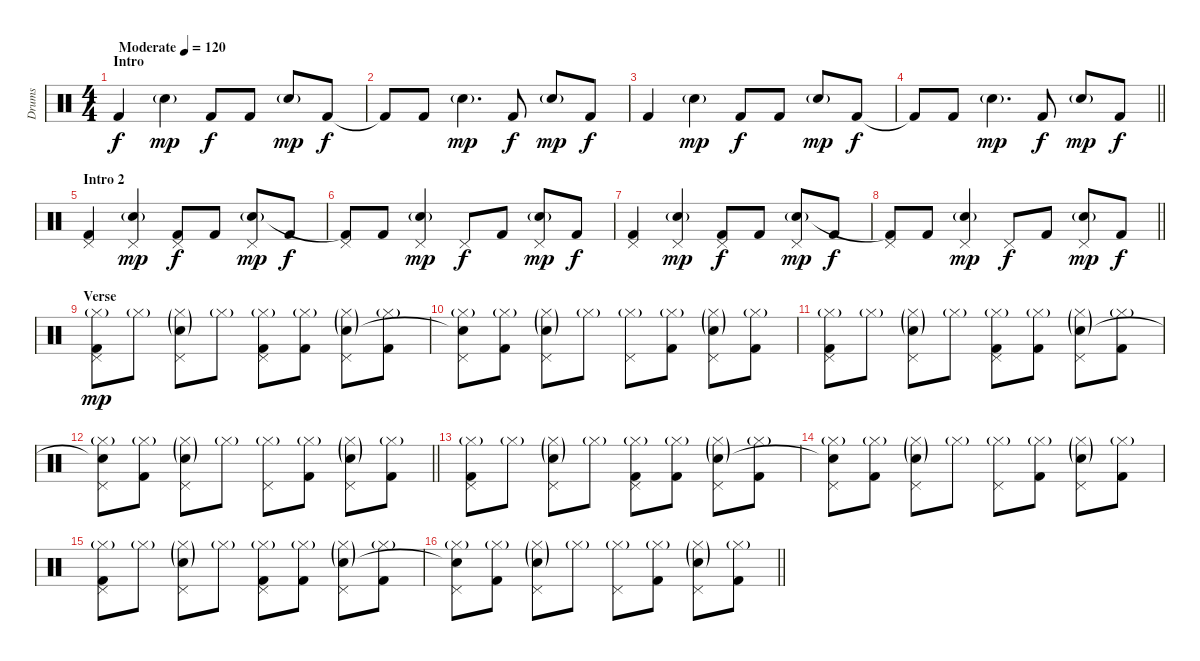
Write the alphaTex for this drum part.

\track ("Drums" "Drums") {instrument percussion}
\staff {score}
\articulation defaults
\ts (4 4)
\section ("" "Intro")
\tempo (120 "Moderate")
\clef neutral
\ks c "Kick (hit) 2".4{dy f} "Snare (hit) 2"{g}.4{dy mp} "Kick (hit) 2".8{dy f} "Kick (hit) 2".8 "Snare (hit) 2"{g}.8{dy mp} "Kick (hit) 2".8{dy f}
|
"Kick (hit) 2"{t}.8 "Kick (hit) 2".8 "Snare (hit) 2"{g}.4{d dy mp} "Kick (hit) 2".8{dy f} "Snare (hit) 2"{g}.8{dy mp} "Kick (hit) 2".8{dy f} |
"Kick (hit) 2".4 "Snare (hit) 2"{g}.4{dy mp} "Kick (hit) 2".8{dy f} "Kick (hit) 2".8 "Snare (hit) 2"{g}.8{dy mp} "Kick (hit) 2".8{dy f} |
\barLineRight lightlight "Kick (hit) 2"{t}.8 "Kick (hit) 2".8 "Snare (hit) 2"{g}.4{d dy mp} "Kick (hit) 2".8{dy f} "Snare (hit) 2"{g}.8{dy mp} "Kick (hit) 2".8{dy f}
|
\section ("" "Intro 2")
("Pedal Hi-Hat (hit)" "Kick (hit) 2").4 ("Pedal Hi-Hat (hit)" "Snare (hit) 2"{g}).4{dy mp} ("Pedal Hi-Hat (hit)" "Kick (hit) 2").8{dy f} "Kick (hit) 2".8 ("Pedal Hi-Hat (hit)" "Snare (hit) 2"{g}).8{dy mp} "Kick (hit) 2".8{dy f} |
("Pedal Hi-Hat (hit)" "Kick (hit) 2"{t}).8 "Kick (hit) 2".8 ("Pedal Hi-Hat (hit)" "Snare (hit) 2"{g}).4{dy mp} "Pedal Hi-Hat (hit)".8{dy f} "Kick (hit) 2".8 ("Pedal Hi-Hat (hit)" "Snare (hit) 2"{g}).8{dy mp} "Kick (hit) 2".8{dy f} |
("Pedal Hi-Hat (hit)" "Kick (hit) 2").4 ("Pedal Hi-Hat (hit)" "Snare (hit) 2"{g}).4{dy mp} ("Pedal Hi-Hat (hit)" "Kick (hit) 2").8{dy f} "Kick (hit) 2".8 ("Pedal Hi-Hat (hit)" "Snare (hit) 2"{g}).8{dy mp} "Kick (hit) 2".8{dy f} |
\barLineRight lightlight
("Pedal Hi-Hat (hit)" "Kick (hit) 2"{t}).8 "Kick (hit) 2".8 ("Pedal Hi-Hat (hit)" "Snare (hit) 2"{g}).4{dy mp} "Pedal Hi-Hat (hit)".8{dy f} "Kick (hit) 2".8 ("Pedal Hi-Hat (hit)" "Snare (hit) 2"{g}).8{dy mp} "Kick (hit) 2".8{dy f} |
\section ("" "Verse")
("Pedal Hi-Hat (hit)" "Hi-Hat (closed)"{g} "Kick (hit) 2").8{dy mp} "Hi-Hat (closed)"{g}.8 ("Pedal Hi-Hat (hit)" "Hi-Hat (closed)"{g} "Snare (hit) 2"{g}).8 "Hi-Hat (closed)"{g}.8 ("Pedal Hi-Hat (hit)" "Hi-Hat (closed)"{g} "Kick (hit) 2").8 ("Hi-Hat (closed)"{g} "Kick (hit) 2").8 ("Pedal Hi-Hat (hit)" "Hi-Hat (closed)"{g} "Snare (hit) 2"{g}).8 ("Hi-Hat (closed)"{g} "Kick (hit) 2").8 |
("Pedal Hi-Hat (hit)" "Hi-Hat (closed)"{g} "Snare (hit)"{t}).8 ("Hi-Hat (closed)"{g} "Kick (hit) 2").8 ("Pedal Hi-Hat (hit)" "Hi-Hat (closed)"{g} "Snare (hit) 2"{g}).8 "Hi-Hat (closed)"{g}.8 ("Pedal Hi-Hat (hit)" "Hi-Hat (closed)"{g}).8 ("Hi-Hat (closed)"{g} "Kick (hit) 2").8 ("Pedal Hi-Hat (hit)" "Hi-Hat (closed)"{g} "Snare (hit) 2"{g}).8 ("Hi-Hat (closed)"{g} "Kick (hit) 2").8 |
("Pedal Hi-Hat (hit)" "Hi-Hat (closed)"{g} "Kick (hit) 2").8 "Hi-Hat (closed)"{g}.8 ("Pedal Hi-Hat (hit)" "Hi-Hat (closed)"{g} "Snare (hit) 2"{g}).8 "Hi-Hat (closed)"{g}.8 ("Pedal Hi-Hat (hit)" "Hi-Hat (closed)"{g} "Kick (hit) 2").8 ("Hi-Hat (closed)"{g} "Kick (hit) 2").8 ("Pedal Hi-Hat (hit)" "Hi-Hat (closed)"{g} "Snare (hit) 2"{g}).8 ("Hi-Hat (closed)"{g} "Kick (hit) 2").8 |
\barLineRight lightlight
("Pedal Hi-Hat (hit)" "Hi-Hat (closed)"{g} "Snare (hit)"{t}).8 ("Hi-Hat (closed)"{g} "Kick (hit) 2").8 ("Pedal Hi-Hat (hit)" "Hi-Hat (closed)"{g} "Snare (hit) 2"{g}).8 "Hi-Hat (closed)"{g}.8 ("Pedal Hi-Hat (hit)" "Hi-Hat (closed)"{g}).8 ("Hi-Hat (closed)"{g} "Kick (hit) 2").8 ("Pedal Hi-Hat (hit)" "Hi-Hat (closed)"{g} "Snare (hit) 2"{g}).8 ("Hi-Hat (closed)"{g} "Kick (hit) 2").8 |
("Pedal Hi-Hat (hit)" "Hi-Hat (closed)"{g} "Kick (hit) 2").8 "Hi-Hat (closed)"{g}.8 ("Pedal Hi-Hat (hit)" "Hi-Hat (closed)"{g} "Snare (hit) 2"{g}).8 "Hi-Hat (closed)"{g}.8 ("Pedal Hi-Hat (hit)" "Hi-Hat (closed)"{g} "Kick (hit) 2").8 ("Hi-Hat (closed)"{g} "Kick (hit) 2").8 ("Pedal Hi-Hat (hit)" "Hi-Hat (closed)"{g} "Snare (hit) 2"{g}).8 ("Hi-Hat (closed)"{g} "Kick (hit) 2").8 |
("Pedal Hi-Hat (hit)" "Hi-Hat (closed)"{g} "Snare (hit)"{t}).8 ("Hi-Hat (closed)"{g} "Kick (hit) 2").8 ("Pedal Hi-Hat (hit)" "Hi-Hat (closed)"{g} "Snare (hit) 2"{g}).8 "Hi-Hat (closed)"{g}.8 ("Pedal Hi-Hat (hit)" "Hi-Hat (closed)"{g}).8 ("Hi-Hat (closed)"{g} "Kick (hit) 2").8 ("Pedal Hi-Hat (hit)" "Hi-Hat (closed)"{g} "Snare (hit) 2"{g}).8 ("Hi-Hat (closed)"{g} "Kick (hit) 2").8 |
("Pedal Hi-Hat (hit)" "Hi-Hat (closed)"{g} "Kick (hit) 2").8 "Hi-Hat (closed)"{g}.8 ("Pedal Hi-Hat (hit)" "Hi-Hat (closed)"{g} "Snare (hit) 2"{g}).8 "Hi-Hat (closed)"{g}.8 ("Pedal Hi-Hat (hit)" "Hi-Hat (closed)"{g} "Kick (hit) 2").8 ("Hi-Hat (closed)"{g} "Kick (hit) 2").8 ("Pedal Hi-Hat (hit)" "Hi-Hat (closed)"{g} "Snare (hit) 2"{g}).8 ("Hi-Hat (closed)"{g} "Kick (hit) 2").8 |
\barLineRight lightlight
("Pedal Hi-Hat (hit)" "Hi-Hat (closed)"{g} "Snare (hit)"{t}).8 ("Hi-Hat (closed)"{g} "Kick (hit) 2").8 ("Pedal Hi-Hat (hit)" "Hi-Hat (closed)"{g} "Snare (hit) 2"{g}).8 "Hi-Hat (closed)"{g}.8 ("Pedal Hi-Hat (hit)" "Hi-Hat (closed)"{g}).8 ("Hi-Hat (closed)"{g} "Kick (hit) 2").8 ("Pedal Hi-Hat (hit)" "Hi-Hat (closed)"{g} "Snare (hit) 2"{g}).8 ("Hi-Hat (closed)"{g} "Kick (hit) 2").8
